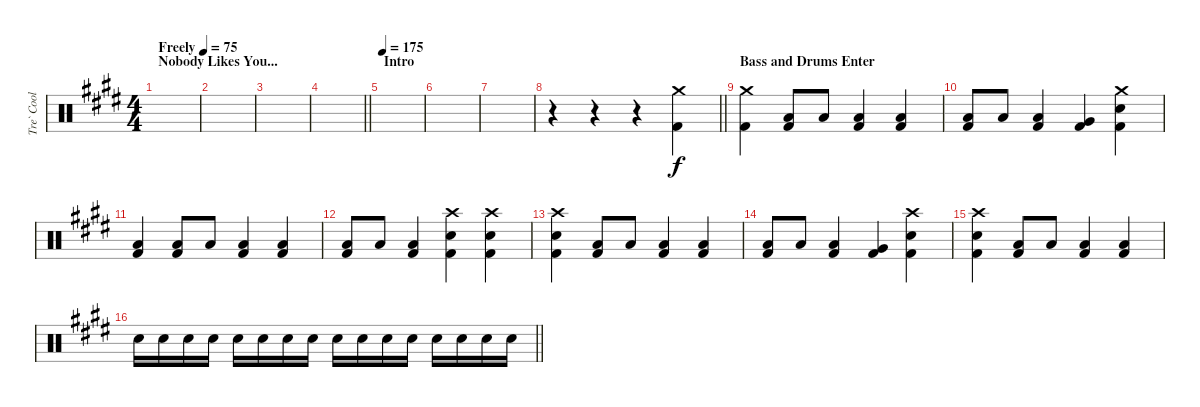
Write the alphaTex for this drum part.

\track ("Tre` Cool" "Tre` Cool") {instrument percussion}
\staff {score}
\articulation defaults
\ts (4 4)
\section ("" "Nobody Likes You...")
\tempo (75 "Freely")
\clef neutral
\ks e
|
|
|
\barLineRight lightlight
|
\section ("" "Intro")
\tempo 175
|
|
|
\barLineRight lightlight
r.4 r.4 r.4 ("Crash medium (hit)" "Kick (hit) 2").4 |
\section ("" "Bass and Drums Enter")
("Crash medium (hit)" "Kick (hit) 2").4 ("Low Floor Tom (hit)" "Kick (hit) 2").8 "Low Tom (hit)".8 ("Low Floor Tom (hit)" "Kick (hit) 2").4 ("Low Tom (hit)" "Kick (hit) 2").4 |
("Low Floor Tom (hit)" "Kick (hit) 2").8 "Low Tom (hit)".8 ("Low Floor Tom (hit)" "Kick (hit) 2").4 ("Very Low Tom (hit)" "Kick (hit) 2").4 ("Crash medium (hit)" "Snare (hit) 2" "Kick (hit) 2").4 |
("Low Tom (hit)" "Kick (hit) 2").4 ("Low Floor Tom (hit)" "Kick (hit) 2").8 "Low Tom (hit)".8 ("Low Floor Tom (hit)" "Kick (hit) 2").4 ("Low Tom (hit)" "Kick (hit) 2").4 |
("Low Floor Tom (hit)" "Kick (hit) 2").8 "Low Tom (hit)".8 ("Low Floor Tom (hit)" "Kick (hit) 2").4 ("Crash high (hit)" "Snare (hit) 2" "Kick (hit) 2").4 ("Crash high (hit)" "Snare (hit) 2" "Kick (hit) 2").4 |
("Crash high (hit)" "Snare (hit) 2" "Kick (hit) 2").4 ("Low Floor Tom (hit)" "Kick (hit) 2").8 "Low Tom (hit)".8 ("Low Floor Tom (hit)" "Kick (hit) 2").4 ("Low Tom (hit)" "Kick (hit) 2").4 |
("Low Floor Tom (hit)" "Kick (hit) 2").8 "Low Tom (hit)".8 ("Low Floor Tom (hit)" "Kick (hit) 2").4 ("Very Low Tom (hit)" "Kick (hit) 2").4 ("Crash high (hit)" "Snare (hit) 2" "Kick (hit) 2").4 |
("Crash high (hit)" "Snare (hit) 2" "Kick (hit) 2").4 ("Low Floor Tom (hit)" "Kick (hit) 2").8 "Low Tom (hit)".8 ("Low Floor Tom (hit)" "Kick (hit) 2").4 ("Low Tom (hit)" "Kick (hit) 2").4 |
\barLineRight lightlight "Snare (hit) 2".16 "Snare (hit) 2".16 "Snare (hit) 2".16 "Snare (hit) 2".16 "Snare (hit) 2".16 "Snare (hit) 2".16 "Snare (hit) 2".16 "Snare (hit) 2".16 "Snare (hit) 2".16 "Snare (hit) 2".16 "Snare (hit) 2".16 "Snare (hit) 2".16 "Snare (hit) 2".16 "Snare (hit) 2".16 "Snare (hit) 2".16 "Snare (hit) 2".16
